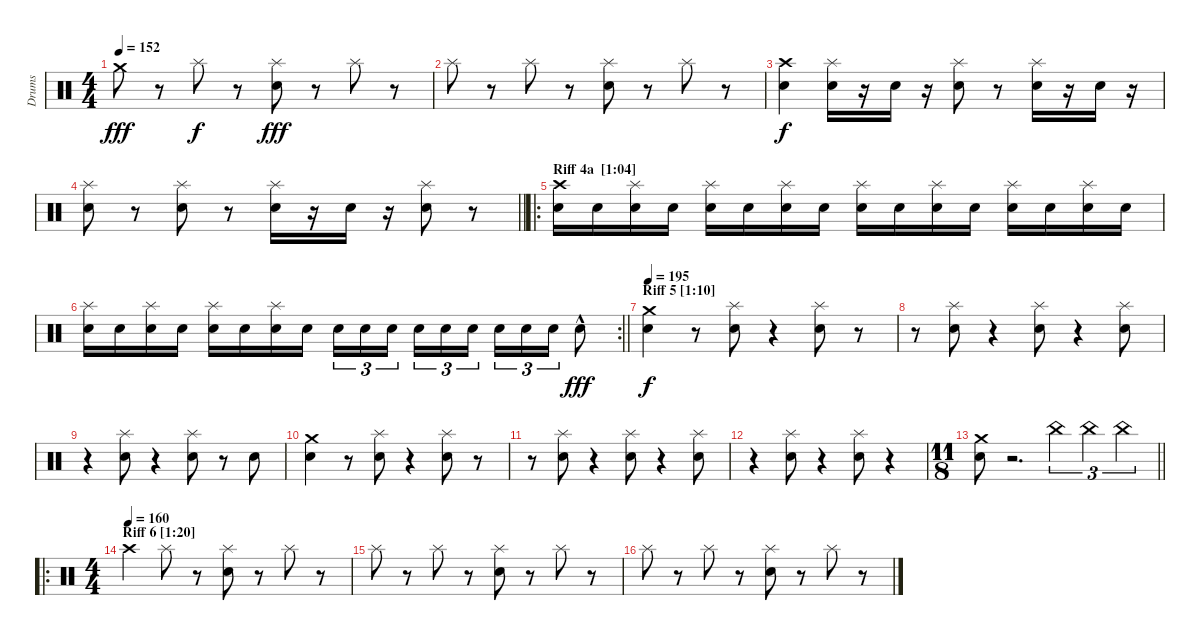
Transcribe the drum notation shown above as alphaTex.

\track ("Drums" "Drums") {instrument percussion}
\staff {score}
\articulation defaults
\ts (4 4)
\tempo 152
\clef neutral
\ks c "Crash medium (hit)".8{dy fff}
r.8 "Splash (hit)".8{dy f} r.8 ("Splash (hit)" "Electric Snare (hit)").8{dy fff} r.8 "Splash (hit)".8 r.8 |
"Splash (hit)".8 r.8 "Splash (hit)".8 r.8 ("Splash (hit)" "Electric Snare (hit)").8 r.8 "Splash (hit)".8 r.8 |
("Crash high (hit)" "Electric Snare (hit)").4{dy f} ("Splash (hit)" "Electric Snare (hit)").16 r.16 "Electric Snare (hit)".16 r.16 ("Splash (hit)" "Electric Snare (hit)").8 r.8 ("Splash (hit)" "Electric Snare (hit)").16 r.16 "Electric Snare (hit)".16 r.16 |
\barLineRight lightlight
("Splash (hit)" "Electric Snare (hit)").8 r.8 ("Splash (hit)" "Electric Snare (hit)").8 r.8 ("Splash (hit)" "Electric Snare (hit)").16 r.16 "Electric Snare (hit)".16 r.16 ("Splash (hit)" "Electric Snare (hit)").8 r.8 |
\ro
\section ("" "Riff 4a  [1:04]")
("Crash high (hit)" "Electric Snare (hit)").16 "Electric Snare (hit)".16 ("Splash (hit)" "Electric Snare (hit)").16 "Electric Snare (hit)".16 ("Splash (hit)" "Electric Snare (hit)").16 "Electric Snare (hit)".16 ("Splash (hit)" "Electric Snare (hit)").16 "Electric Snare (hit)".16 ("Splash (hit)" "Electric Snare (hit)").16 "Electric Snare (hit)".16 ("Splash (hit)" "Electric Snare (hit)").16 "Electric Snare (hit)".16 ("Splash (hit)" "Electric Snare (hit)").16 "Electric Snare (hit)".16 ("Splash (hit)" "Electric Snare (hit)").16 "Electric Snare (hit)".16 |
\rc 2
\barLineRight lightlight
("Splash (hit)" "Electric Snare (hit)").16 "Electric Snare (hit)".16 ("Splash (hit)" "Electric Snare (hit)").16 "Electric Snare (hit)".16 ("Splash (hit)" "Electric Snare (hit)").16 "Electric Snare (hit)".16 ("Splash (hit)" "Electric Snare (hit)").16 "Electric Snare (hit)".16 "Electric Snare (hit)".16{tu (3 2)} "Electric Snare (hit)".16{tu (3 2)} "Electric Snare (hit)".16{tu (3 2) beam splitsecondary} "Electric Snare (hit)".16{tu (3 2)} "Electric Snare (hit)".16{tu (3 2)} "Electric Snare (hit)".16{tu (3 2)} "Electric Snare (hit)".16{tu (3 2)} "Electric Snare (hit)".16{tu (3 2)} "Electric Snare (hit)".16{tu (3 2)} "Electric Snare (hit)"{hac}.8{dy fff} |
\section ("" "Riff 5 [1:10]")
\tempo 195
("Crash medium (hit)" "Electric Snare (hit)").4{dy f} r.8 ("Splash (hit)" "Electric Snare (hit)").8 r.4 ("Splash (hit)" "Electric Snare (hit)").8 r.8 |
r.8 ("Splash (hit)" "Electric Snare (hit)").8 r.4 ("Splash (hit)" "Electric Snare (hit)").8 r.4 ("Splash (hit)" "Electric Snare (hit)").8 |
r.4 ("Splash (hit)" "Electric Snare (hit)").8 r.4 ("Splash (hit)" "Electric Snare (hit)").8 r.8 "Electric Snare (hit)".8 |
("Crash medium (hit)" "Electric Snare (hit)").4 r.8 ("Splash (hit)" "Electric Snare (hit)").8 r.4 ("Splash (hit)" "Electric Snare (hit)").8 r.8 |
r.8 ("Splash (hit)" "Electric Snare (hit)").8 r.4 ("Splash (hit)" "Electric Snare (hit)").8 r.4 ("Splash (hit)" "Electric Snare (hit)").8 |
r.4 ("Splash (hit)" "Electric Snare (hit)").8 r.4 ("Splash (hit)" "Electric Snare (hit)").8 r.4 |
\ts (11 8)
\barLineRight lightlight
("Crash medium (hit)" "Electric Snare (hit)").8 r.2{d} "China (hit)".4{tu (3 2)} "China (hit)".4{tu (3 2)} "China (hit)".4{tu (3 2)} |
\ro
\ts (4 4)
\section ("" "Riff 6 [1:20]")
\tempo (160)
"Crash high (hit)".4 "Splash (hit)".8 r.8 ("Splash (hit)" "Electric Snare (hit)").8 r.8 "Splash (hit)".8 r.8 |
"Splash (hit)".8 r.8 "Splash (hit)".8 r.8 ("Splash (hit)" "Electric Snare (hit)").8 r.8 "Splash (hit)".8 r.8 |
"Splash (hit)".8 r.8 "Splash (hit)".8 r.8 ("Splash (hit)" "Electric Snare (hit)").8 r.8 "Splash (hit)".8 r.8
